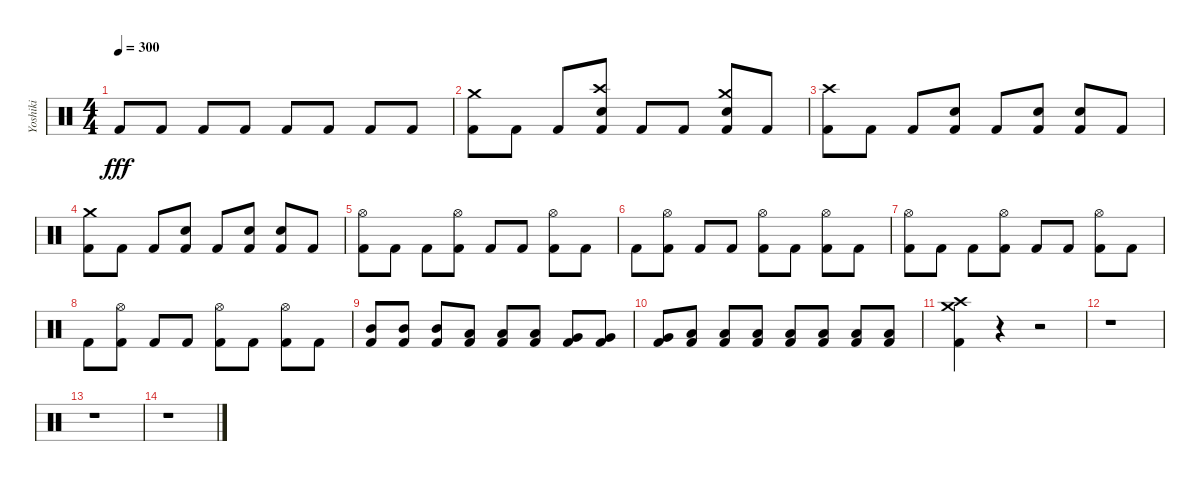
\track ("Yoshiki" "Yoshiki") {instrument percussion}
\staff {score}
\articulation defaults
\ts (4 4)
\tempo 300
\clef neutral
\ks c "Kick (hit) 2".8{dy fff} "Kick (hit) 2".8 "Kick (hit) 2".8 "Kick (hit) 2".8 "Kick (hit) 2".8 "Kick (hit) 2".8 "Kick (hit) 2".8 "Kick (hit) 2".8
|
("Crash medium (hit)" "Kick (hit) 2").8 "Kick (hit) 2".8 "Kick (hit) 2".8 ("Crash high (hit)" "Snare (hit) 2" "Kick (hit) 2").8 "Kick (hit) 2".8 "Kick (hit) 2".8 ("Crash medium (hit)" "Snare (hit) 2" "Kick (hit) 2").8 "Kick (hit) 2".8 |
("Crash high (hit)" "Kick (hit) 2").8 "Kick (hit) 2".8 "Kick (hit) 2".8 ("Snare (hit) 2" "Kick (hit) 2").8 "Kick (hit) 2".8 ("Snare (hit) 2" "Kick (hit) 2").8 ("Snare (hit) 2" "Kick (hit) 2").8 "Kick (hit) 2".8 |
("Crash medium (hit)" "Kick (hit) 2").8 "Kick (hit) 2".8 "Kick (hit) 2".8 ("Snare (hit) 2" "Kick (hit) 2").8 "Kick (hit) 2".8 ("Snare (hit) 2" "Kick (hit) 2").8 ("Snare (hit) 2" "Kick (hit) 2").8 "Kick (hit) 2".8 |
("Hi-Hat (open)" "Kick (hit) 2").8 "Kick (hit) 2".8 "Kick (hit) 2".8 ("Hi-Hat (open)" "Kick (hit) 2").8 "Kick (hit) 2".8 "Kick (hit) 2".8 ("Hi-Hat (open)" "Kick (hit) 2").8 "Kick (hit) 2".8 |
"Kick (hit) 2".8 ("Hi-Hat (open)" "Kick (hit) 2").8 "Kick (hit) 2".8 "Kick (hit) 2".8 ("Hi-Hat (open)" "Kick (hit) 2").8 "Kick (hit) 2".8 ("Hi-Hat (open)" "Kick (hit) 2").8 "Kick (hit) 2".8 |
("Hi-Hat (open)" "Kick (hit) 2").8 "Kick (hit) 2".8 "Kick (hit) 2".8 ("Hi-Hat (open)" "Kick (hit) 2").8 "Kick (hit) 2".8 "Kick (hit) 2".8 ("Hi-Hat (open)" "Kick (hit) 2").8 "Kick (hit) 2".8 |
"Kick (hit) 2".8 ("Hi-Hat (open)" "Kick (hit) 2").8 "Kick (hit) 2".8 "Kick (hit) 2".8 ("Hi-Hat (open)" "Kick (hit) 2").8 "Kick (hit) 2".8 ("Hi-Hat (open)" "Kick (hit) 2").8 "Kick (hit) 2".8 |
("Mid Tom (hit)" "Kick (hit) 2").8 ("Mid Tom (hit)" "Kick (hit) 2").8 ("Mid Tom (hit)" "Kick (hit) 2").8 ("Low Tom (hit)" "Kick (hit) 2").8 ("Low Tom (hit)" "Kick (hit) 2").8 ("Low Tom (hit)" "Kick (hit) 2").8 ("Very Low Tom (hit)" "Kick (hit) 2").8 ("Very Low Tom (hit)" "Kick (hit) 2").8 |
("Very Low Tom (hit)" "Kick (hit) 2").8 ("Low Floor Tom (hit)" "Kick (hit) 2").8 ("Low Floor Tom (hit)" "Kick (hit) 2").8 ("Low Floor Tom (hit)" "Kick (hit) 2").8 ("Low Floor Tom (hit)" "Kick (hit) 2").8 ("Low Floor Tom (hit)" "Kick (hit) 2").8 ("Low Floor Tom (hit)" "Kick (hit) 2").8 ("Low Floor Tom (hit)" "Kick (hit) 2").8 |
("Crash medium (hit)" "Crash high (hit)" "Kick (hit) 2").4 r.4 r.2 |
r.1 |
r.1 |
r.1
